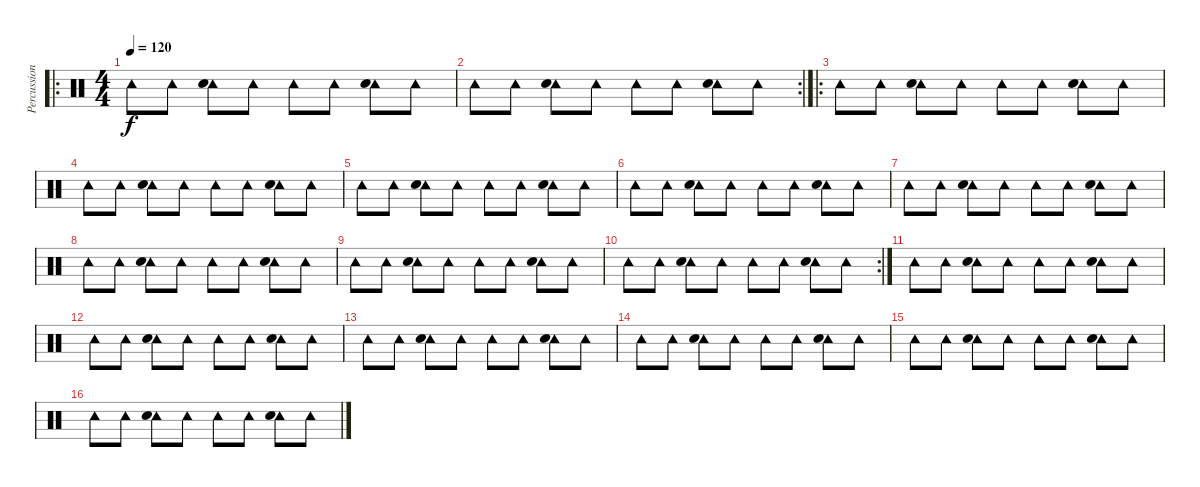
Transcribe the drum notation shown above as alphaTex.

\track ("Percussions (Moe Tucker)" "Percussion") {instrument percussion}
\staff {score}
\articulation defaults
\ro
\ts (4 4)
\tempo 120
\clef neutral
\ks c "Tambourine (hit)".8{dy f} "Tambourine (hit)".8
("Tambourine (hit)" "Snare (hit) 2").8 "Tambourine (hit)".8 "Tambourine (hit)".8 "Tambourine (hit)".8 ("Tambourine (hit)" "Snare (hit) 2").8 "Tambourine (hit)".8 |
\rc 2 "Tambourine (hit)".8 "Tambourine (hit)".8
("Tambourine (hit)" "Snare (hit) 2").8 "Tambourine (hit)".8 "Tambourine (hit)".8 "Tambourine (hit)".8 ("Tambourine (hit)" "Snare (hit) 2").8 "Tambourine (hit)".8 |
\ro "Tambourine (hit)".8 "Tambourine (hit)".8
("Tambourine (hit)" "Snare (hit) 2").8 "Tambourine (hit)".8 "Tambourine (hit)".8 "Tambourine (hit)".8 ("Tambourine (hit)" "Snare (hit) 2").8 "Tambourine (hit)".8 |
"Tambourine (hit)".8 "Tambourine (hit)".8 ("Tambourine (hit)" "Snare (hit) 2").8 "Tambourine (hit)".8 "Tambourine (hit)".8 "Tambourine (hit)".8 ("Tambourine (hit)" "Snare (hit) 2").8 "Tambourine (hit)".8 |
"Tambourine (hit)".8 "Tambourine (hit)".8 ("Tambourine (hit)" "Snare (hit) 2").8 "Tambourine (hit)".8 "Tambourine (hit)".8 "Tambourine (hit)".8 ("Tambourine (hit)" "Snare (hit) 2").8 "Tambourine (hit)".8 |
"Tambourine (hit)".8 "Tambourine (hit)".8 ("Tambourine (hit)" "Snare (hit) 2").8 "Tambourine (hit)".8 "Tambourine (hit)".8 "Tambourine (hit)".8 ("Tambourine (hit)" "Snare (hit) 2").8 "Tambourine (hit)".8 |
"Tambourine (hit)".8 "Tambourine (hit)".8 ("Tambourine (hit)" "Snare (hit) 2").8 "Tambourine (hit)".8 "Tambourine (hit)".8 "Tambourine (hit)".8 ("Tambourine (hit)" "Snare (hit) 2").8 "Tambourine (hit)".8 |
"Tambourine (hit)".8 "Tambourine (hit)".8 ("Tambourine (hit)" "Snare (hit) 2").8 "Tambourine (hit)".8 "Tambourine (hit)".8 "Tambourine (hit)".8 ("Tambourine (hit)" "Snare (hit) 2").8 "Tambourine (hit)".8 |
"Tambourine (hit)".8 "Tambourine (hit)".8 ("Tambourine (hit)" "Snare (hit) 2").8 "Tambourine (hit)".8 "Tambourine (hit)".8 "Tambourine (hit)".8 ("Tambourine (hit)" "Snare (hit) 2").8 "Tambourine (hit)".8 |
\rc 2 "Tambourine (hit)".8 "Tambourine (hit)".8
("Tambourine (hit)" "Snare (hit) 2").8 "Tambourine (hit)".8 "Tambourine (hit)".8 "Tambourine (hit)".8 ("Tambourine (hit)" "Snare (hit) 2").8 "Tambourine (hit)".8 |
"Tambourine (hit)".8 "Tambourine (hit)".8 ("Tambourine (hit)" "Snare (hit) 2").8 "Tambourine (hit)".8 "Tambourine (hit)".8 "Tambourine (hit)".8 ("Tambourine (hit)" "Snare (hit) 2").8 "Tambourine (hit)".8 |
"Tambourine (hit)".8 "Tambourine (hit)".8 ("Tambourine (hit)" "Snare (hit) 2").8 "Tambourine (hit)".8 "Tambourine (hit)".8 "Tambourine (hit)".8 ("Tambourine (hit)" "Snare (hit) 2").8 "Tambourine (hit)".8 |
"Tambourine (hit)".8 "Tambourine (hit)".8 ("Tambourine (hit)" "Snare (hit) 2").8 "Tambourine (hit)".8 "Tambourine (hit)".8 "Tambourine (hit)".8 ("Tambourine (hit)" "Snare (hit) 2").8 "Tambourine (hit)".8 |
"Tambourine (hit)".8 "Tambourine (hit)".8 ("Tambourine (hit)" "Snare (hit) 2").8 "Tambourine (hit)".8 "Tambourine (hit)".8 "Tambourine (hit)".8 ("Tambourine (hit)" "Snare (hit) 2").8 "Tambourine (hit)".8 |
"Tambourine (hit)".8 "Tambourine (hit)".8 ("Tambourine (hit)" "Snare (hit) 2").8 "Tambourine (hit)".8 "Tambourine (hit)".8 "Tambourine (hit)".8 ("Tambourine (hit)" "Snare (hit) 2").8 "Tambourine (hit)".8 |
"Tambourine (hit)".8 "Tambourine (hit)".8 ("Tambourine (hit)" "Snare (hit) 2").8 "Tambourine (hit)".8 "Tambourine (hit)".8 "Tambourine (hit)".8 ("Tambourine (hit)" "Snare (hit) 2").8 "Tambourine (hit)".8
